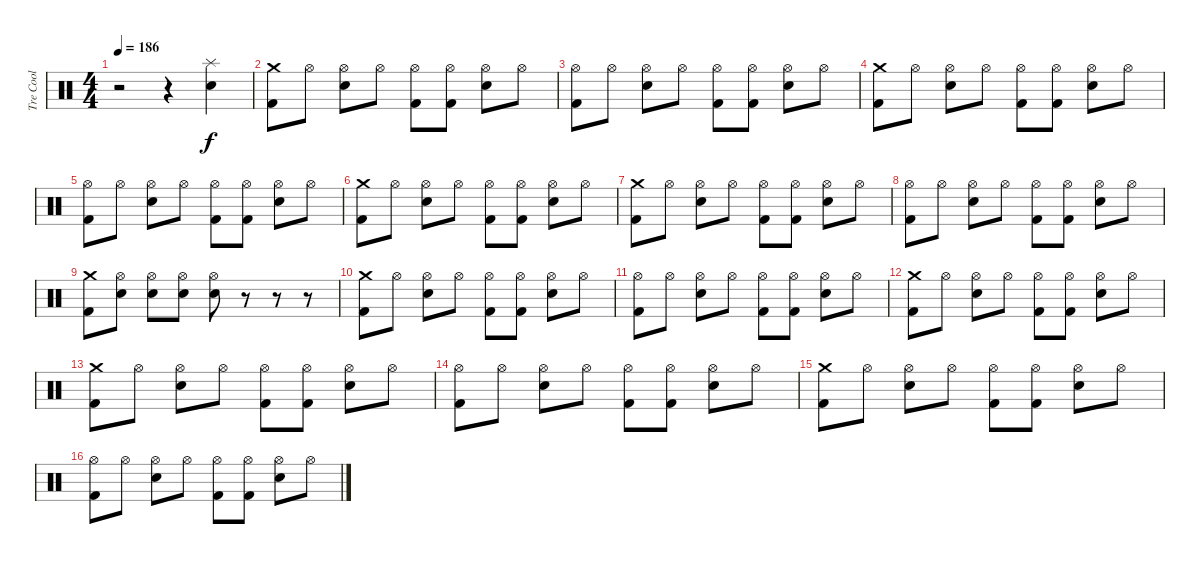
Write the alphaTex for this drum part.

\track ("Tre Cool" "Tre Cool") {instrument percussion}
\staff {score}
\articulation defaults
\ts (4 4)
\tempo 186
\clef neutral
\ks c
r.2{dy f} r.4 ("Splash (hit)" "Electric Snare (hit)").4 |
("Crash medium (hit)" "Kick (hit) 2").8 "Hi-Hat (open)".8 ("Hi-Hat (open)" "Snare (hit) 2").8 "Hi-Hat (open)".8 ("Hi-Hat (open)" "Kick (hit) 2").8 ("Hi-Hat (open)" "Kick (hit) 2").8 ("Hi-Hat (open)" "Snare (hit) 2").8 "Hi-Hat (open)".8 |
("Hi-Hat (open)" "Kick (hit) 2").8 "Hi-Hat (open)".8 ("Hi-Hat (open)" "Snare (hit) 2").8 "Hi-Hat (open)".8 ("Hi-Hat (open)" "Kick (hit) 2").8 ("Hi-Hat (open)" "Kick (hit) 2").8 ("Hi-Hat (open)" "Snare (hit) 2").8 "Hi-Hat (open)".8 |
("Crash medium (hit)" "Kick (hit) 2").8 "Hi-Hat (open)".8 ("Hi-Hat (open)" "Snare (hit) 2").8 "Hi-Hat (open)".8 ("Hi-Hat (open)" "Kick (hit) 2").8 ("Hi-Hat (open)" "Kick (hit) 2").8 ("Hi-Hat (open)" "Snare (hit) 2").8 "Hi-Hat (open)".8 |
("Hi-Hat (open)" "Kick (hit) 2").8 "Hi-Hat (open)".8 ("Hi-Hat (open)" "Snare (hit) 2").8 "Hi-Hat (open)".8 ("Hi-Hat (open)" "Kick (hit) 2").8 ("Hi-Hat (open)" "Kick (hit) 2").8 ("Hi-Hat (open)" "Snare (hit) 2").8 "Hi-Hat (open)".8 |
("Crash medium (hit)" "Kick (hit) 2").8 "Hi-Hat (open)".8 ("Hi-Hat (open)" "Snare (hit) 2").8 "Hi-Hat (open)".8 ("Hi-Hat (open)" "Kick (hit) 2").8 ("Hi-Hat (open)" "Kick (hit) 2").8 ("Hi-Hat (open)" "Snare (hit) 2").8 "Hi-Hat (open)".8 |
("Crash medium (hit)" "Kick (hit) 2").8 "Hi-Hat (open)".8 ("Hi-Hat (open)" "Snare (hit) 2").8 "Hi-Hat (open)".8 ("Hi-Hat (open)" "Kick (hit) 2").8 ("Hi-Hat (open)" "Kick (hit) 2").8 ("Hi-Hat (open)" "Snare (hit) 2").8 "Hi-Hat (open)".8 |
("Hi-Hat (open)" "Kick (hit) 2").8 "Hi-Hat (open)".8 ("Hi-Hat (open)" "Snare (hit) 2").8 "Hi-Hat (open)".8 ("Hi-Hat (open)" "Kick (hit) 2").8 ("Hi-Hat (open)" "Kick (hit) 2").8 ("Hi-Hat (open)" "Snare (hit) 2").8 "Hi-Hat (open)".8 |
("Crash medium (hit)" "Kick (hit) 2").8 ("Hi-Hat (open)" "Electric Snare (hit)").8 ("Hi-Hat (open)" "Electric Snare (hit)").8 ("Hi-Hat (open)" "Electric Snare (hit)").8 ("Hi-Hat (open)" "Electric Snare (hit)").8 r.8 r.8 r.8 |
("Crash medium (hit)" "Kick (hit) 2").8 "Hi-Hat (open)".8 ("Hi-Hat (open)" "Snare (hit) 2").8 "Hi-Hat (open)".8 ("Hi-Hat (open)" "Kick (hit) 2").8 ("Hi-Hat (open)" "Kick (hit) 2").8 ("Hi-Hat (open)" "Snare (hit) 2").8 "Hi-Hat (open)".8 |
("Hi-Hat (open)" "Kick (hit) 2").8 "Hi-Hat (open)".8 ("Hi-Hat (open)" "Snare (hit) 2").8 "Hi-Hat (open)".8 ("Hi-Hat (open)" "Kick (hit) 2").8 ("Hi-Hat (open)" "Kick (hit) 2").8 ("Hi-Hat (open)" "Snare (hit) 2").8 "Hi-Hat (open)".8 |
("Crash medium (hit)" "Kick (hit) 2").8 "Hi-Hat (open)".8 ("Hi-Hat (open)" "Snare (hit) 2").8 "Hi-Hat (open)".8 ("Hi-Hat (open)" "Kick (hit) 2").8 ("Hi-Hat (open)" "Kick (hit) 2").8 ("Hi-Hat (open)" "Snare (hit) 2").8 "Hi-Hat (open)".8 |
("Crash medium (hit)" "Kick (hit) 2").8 "Hi-Hat (open)".8 ("Hi-Hat (open)" "Snare (hit) 2").8 "Hi-Hat (open)".8 ("Hi-Hat (open)" "Kick (hit) 2").8 ("Hi-Hat (open)" "Kick (hit) 2").8 ("Hi-Hat (open)" "Snare (hit) 2").8 "Hi-Hat (open)".8 |
("Hi-Hat (open)" "Kick (hit) 2").8 "Hi-Hat (open)".8 ("Hi-Hat (open)" "Snare (hit) 2").8 "Hi-Hat (open)".8 ("Hi-Hat (open)" "Kick (hit) 2").8 ("Hi-Hat (open)" "Kick (hit) 2").8 ("Hi-Hat (open)" "Snare (hit) 2").8 "Hi-Hat (open)".8 |
("Crash medium (hit)" "Kick (hit) 2").8 "Hi-Hat (open)".8 ("Hi-Hat (open)" "Snare (hit) 2").8 "Hi-Hat (open)".8 ("Hi-Hat (open)" "Kick (hit) 2").8 ("Hi-Hat (open)" "Kick (hit) 2").8 ("Hi-Hat (open)" "Snare (hit) 2").8 "Hi-Hat (open)".8 |
("Hi-Hat (open)" "Kick (hit) 2").8 "Hi-Hat (open)".8 ("Hi-Hat (open)" "Snare (hit) 2").8 "Hi-Hat (open)".8 ("Hi-Hat (open)" "Kick (hit) 2").8 ("Hi-Hat (open)" "Kick (hit) 2").8 ("Hi-Hat (open)" "Snare (hit) 2").8 "Hi-Hat (open)".8
